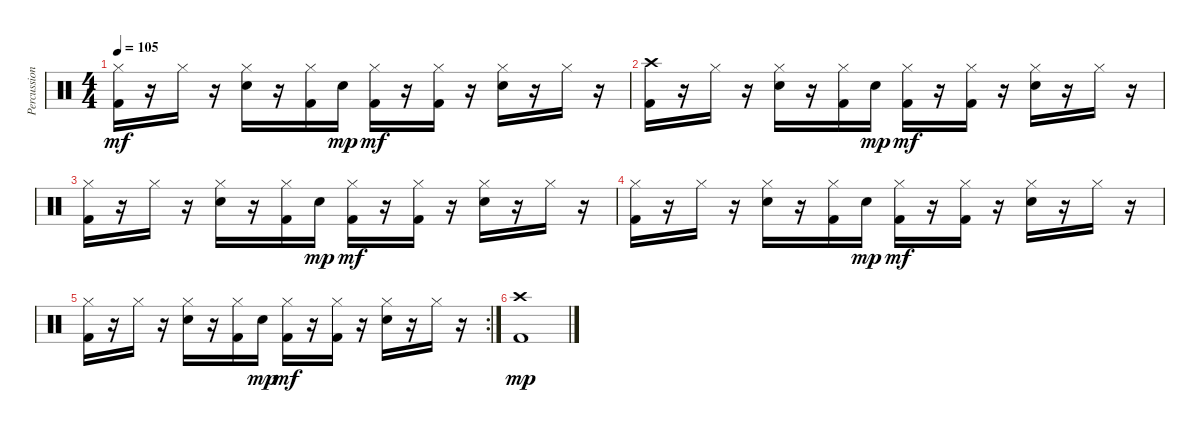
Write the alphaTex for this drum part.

\track ("Percussion" "Percussion") {instrument percussion}
\staff {score}
\articulation defaults
\ts (4 4)
\tempo 105
\clef neutral
\ks c
("Hi-Hat (closed)" "Kick (hit) 2").16{dy mf} r.16 "Hi-Hat (closed)".16 r.16 ("Hi-Hat (closed)" "Electric Snare (hit)").16 r.16 ("Hi-Hat (closed)" "Kick (hit) 2").16 "Electric Snare (hit)".16{dy mp} ("Hi-Hat (closed)" "Kick (hit) 2").16{dy mf} r.16 ("Hi-Hat (closed)" "Kick (hit) 2").16 r.16 ("Hi-Hat (closed)" "Electric Snare (hit)").16 r.16 "Hi-Hat (closed)".16 r.16 |
("Crash high (hit)" "Kick (hit) 2").16 r.16 "Hi-Hat (closed)".16 r.16 ("Hi-Hat (closed)" "Electric Snare (hit)").16 r.16 ("Hi-Hat (closed)" "Kick (hit) 2").16 "Electric Snare (hit)".16{dy mp} ("Hi-Hat (closed)" "Kick (hit) 2").16{dy mf} r.16 ("Hi-Hat (closed)" "Kick (hit) 2").16 r.16 ("Hi-Hat (closed)" "Electric Snare (hit)").16 r.16 "Hi-Hat (closed)".16 r.16 |
("Hi-Hat (closed)" "Kick (hit) 2").16 r.16 "Hi-Hat (closed)".16 r.16 ("Hi-Hat (closed)" "Electric Snare (hit)").16 r.16 ("Hi-Hat (closed)" "Kick (hit) 2").16 "Electric Snare (hit)".16{dy mp} ("Hi-Hat (closed)" "Kick (hit) 2").16{dy mf} r.16 ("Hi-Hat (closed)" "Kick (hit) 2").16 r.16 ("Hi-Hat (closed)" "Electric Snare (hit)").16 r.16 "Hi-Hat (closed)".16 r.16 |
("Hi-Hat (closed)" "Kick (hit) 2").16 r.16 "Hi-Hat (closed)".16 r.16 ("Hi-Hat (closed)" "Electric Snare (hit)").16 r.16 ("Hi-Hat (closed)" "Kick (hit) 2").16 "Electric Snare (hit)".16{dy mp} ("Hi-Hat (closed)" "Kick (hit) 2").16{dy mf} r.16 ("Hi-Hat (closed)" "Kick (hit) 2").16 r.16 ("Hi-Hat (closed)" "Electric Snare (hit)").16 r.16 "Hi-Hat (closed)".16 r.16 |
\rc 2
("Hi-Hat (closed)" "Kick (hit) 2").16 r.16 "Hi-Hat (closed)".16 r.16 ("Hi-Hat (closed)" "Electric Snare (hit)").16 r.16 ("Hi-Hat (closed)" "Kick (hit) 2").16 "Electric Snare (hit)".16{dy mp} ("Hi-Hat (closed)" "Kick (hit) 2").16{dy mf} r.16 ("Hi-Hat (closed)" "Kick (hit) 2").16 r.16 ("Hi-Hat (closed)" "Electric Snare (hit)").16 r.16 "Hi-Hat (closed)".16 r.16 |
("Crash high (hit)" "Kick (hit) 2").1{dy mp}
